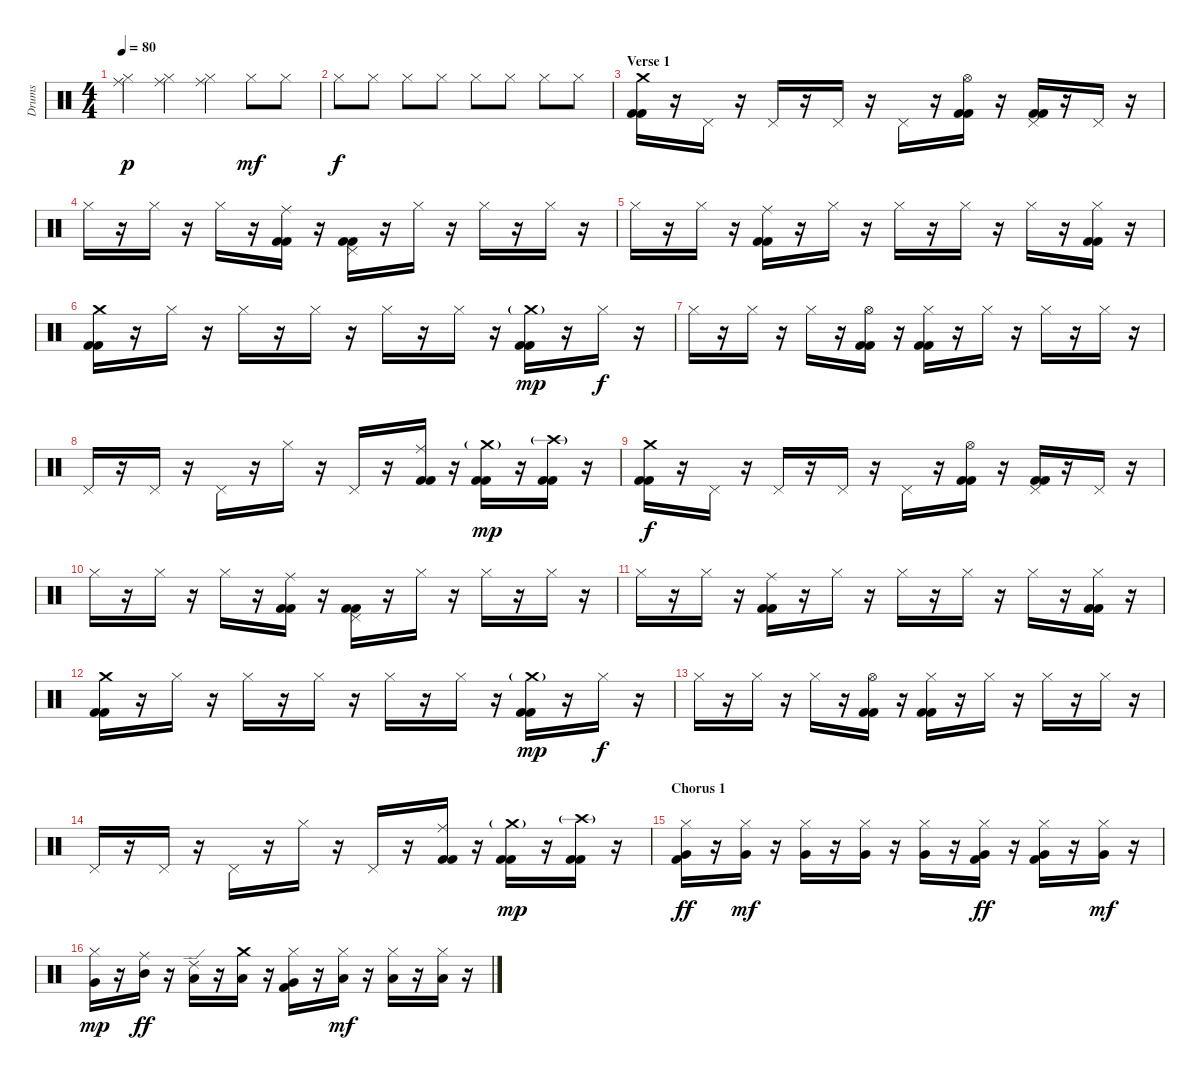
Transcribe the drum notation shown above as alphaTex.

\track ("Drums" "Drums") {instrument percussion}
\staff {score}
\articulation defaults
\ts (4 4)
\tempo 80
\clef neutral
\ks c
("Hi-Hat (closed)" "Ride (middle)").4{dy p} ("Hi-Hat (closed)" "Ride (middle)").4 ("Hi-Hat (closed)" "Ride (middle)").4 "Hi-Hat (closed)".8{dy mf} "Hi-Hat (closed)".8 |
"Hi-Hat (closed)".8{dy f} "Hi-Hat (closed)".8 "Hi-Hat (closed)".8 "Hi-Hat (closed)".8 "Hi-Hat (closed)".8 "Hi-Hat (closed)".8 "Hi-Hat (closed)".8 "Hi-Hat (closed)".8 |
\section ("" "Verse 1")
("Crash medium (hit)" "Kick (hit) 2" "Kick (hit) 2").16 r.16 "Pedal Hi-Hat (hit)".16 r.16 "Pedal Hi-Hat (hit)".16 r.16 "Pedal Hi-Hat (hit)".16 r.16 "Pedal Hi-Hat (hit)".16 r.16 ("Hi-Hat (open)" "Kick (hit) 2" "Kick (hit) 2").16 r.16 ("Pedal Hi-Hat (hit)" "Kick (hit) 2" "Kick (hit) 2").16 r.16 "Pedal Hi-Hat (hit)".16 r.16 |
"Hi-Hat (closed)".16 r.16 "Hi-Hat (closed)".16 r.16 "Hi-Hat (closed)".16 r.16 ("Ride (middle)" "Kick (hit) 2" "Kick (hit) 2").16 r.16 ("Pedal Hi-Hat (hit)" "Kick (hit) 2" "Kick (hit) 2").16 r.16 "Hi-Hat (closed)".16 r.16 "Hi-Hat (closed)".16 r.16 "Hi-Hat (closed)".16 r.16 |
"Hi-Hat (closed)".16 r.16 "Hi-Hat (closed)".16 r.16 ("Ride (middle)" "Kick (hit) 2" "Kick (hit) 2").16 r.16 "Hi-Hat (closed)".16 r.16 "Hi-Hat (closed)".16 r.16 "Hi-Hat (closed)".16 r.16 "Hi-Hat (closed)".16 r.16 ("Hi-Hat (closed)" "Kick (hit) 2" "Kick (hit) 2").16 r.16 |
("Crash medium (hit)" "Kick (hit) 2" "Kick (hit) 2").16 r.16 "Hi-Hat (closed)".16 r.16 "Hi-Hat (closed)".16 r.16 "Hi-Hat (closed)".16 r.16 "Hi-Hat (closed)".16 r.16 "Hi-Hat (closed)".16 r.16 ("Crash medium (hit)"{g} "Kick (hit) 2" "Kick (hit) 2").16{dy mp} r.16 "Hi-Hat (closed)".16{dy f} r.16 |
"Hi-Hat (closed)".16 r.16 "Hi-Hat (closed)".16 r.16 "Hi-Hat (closed)".16 r.16 ("Hi-Hat (open)" "Kick (hit) 2" "Kick (hit) 2").16 r.16 ("Hi-Hat (closed)" "Kick (hit) 2" "Kick (hit) 2").16 r.16 "Hi-Hat (closed)".16 r.16 "Hi-Hat (closed)".16 r.16 "Hi-Hat (closed)".16 r.16 |
"Pedal Hi-Hat (hit)".16 r.16 "Pedal Hi-Hat (hit)".16 r.16 "Pedal Hi-Hat (hit)".16 r.16 "Hi-Hat (closed)".16 r.16 "Pedal Hi-Hat (hit)".16 r.16 ("Ride (middle)" "Kick (hit) 2" "Kick (hit) 2").16 r.16 ("Crash medium (hit)"{g} "Kick (hit) 2" "Kick (hit) 2").16{dy mp} r.16 ("Crash high (hit)"{g} "Kick (hit) 2" "Kick (hit) 2").16 r.16 |
("Crash medium (hit)" "Kick (hit) 2" "Kick (hit) 2").16{dy f} r.16 "Pedal Hi-Hat (hit)".16 r.16 "Pedal Hi-Hat (hit)".16 r.16 "Pedal Hi-Hat (hit)".16 r.16 "Pedal Hi-Hat (hit)".16 r.16 ("Hi-Hat (open)" "Kick (hit) 2" "Kick (hit) 2").16 r.16 ("Pedal Hi-Hat (hit)" "Kick (hit) 2" "Kick (hit) 2").16 r.16 "Pedal Hi-Hat (hit)".16 r.16 |
"Hi-Hat (closed)".16 r.16 "Hi-Hat (closed)".16 r.16 "Hi-Hat (closed)".16 r.16 ("Ride (middle)" "Kick (hit) 2" "Kick (hit) 2").16 r.16 ("Pedal Hi-Hat (hit)" "Kick (hit) 2" "Kick (hit) 2").16 r.16 "Hi-Hat (closed)".16 r.16 "Hi-Hat (closed)".16 r.16 "Hi-Hat (closed)".16 r.16 |
"Hi-Hat (closed)".16 r.16 "Hi-Hat (closed)".16 r.16 ("Ride (middle)" "Kick (hit) 2" "Kick (hit) 2").16 r.16 "Hi-Hat (closed)".16 r.16 "Hi-Hat (closed)".16 r.16 "Hi-Hat (closed)".16 r.16 "Hi-Hat (closed)".16 r.16 ("Hi-Hat (closed)" "Kick (hit) 2" "Kick (hit) 2").16 r.16 |
("Crash medium (hit)" "Kick (hit) 2" "Kick (hit) 2").16 r.16 "Hi-Hat (closed)".16 r.16 "Hi-Hat (closed)".16 r.16 "Hi-Hat (closed)".16 r.16 "Hi-Hat (closed)".16 r.16 "Hi-Hat (closed)".16 r.16 ("Crash medium (hit)"{g} "Kick (hit) 2" "Kick (hit) 2").16{dy mp} r.16 "Hi-Hat (closed)".16{dy f} r.16 |
"Hi-Hat (closed)".16 r.16 "Hi-Hat (closed)".16 r.16 "Hi-Hat (closed)".16 r.16 ("Hi-Hat (open)" "Kick (hit) 2" "Kick (hit) 2").16 r.16 ("Hi-Hat (closed)" "Kick (hit) 2" "Kick (hit) 2").16 r.16 "Hi-Hat (closed)".16 r.16 "Hi-Hat (closed)".16 r.16 "Hi-Hat (closed)".16 r.16 |
"Pedal Hi-Hat (hit)".16 r.16 "Pedal Hi-Hat (hit)".16 r.16 "Pedal Hi-Hat (hit)".16 r.16 "Hi-Hat (closed)".16 r.16 "Pedal Hi-Hat (hit)".16 r.16 ("Ride (middle)" "Kick (hit) 2" "Kick (hit) 2").16 r.16 ("Crash medium (hit)"{g} "Kick (hit) 2" "Kick (hit) 2").16{dy mp} r.16 ("Crash high (hit)"{g} "Kick (hit) 2" "Kick (hit) 2").16 r.16 |
\section ("" "Chorus 1")
("Hi-Hat (closed)" "Very Low Tom (hit)" "Kick (hit) 2").16{dy ff} r.16 ("Hi-Hat (closed)" "Very Low Tom (hit)").16{dy mf} r.16 ("Hi-Hat (closed)" "Very Low Tom (hit)").16 r.16 ("Hi-Hat (closed)" "Very Low Tom (hit)").16 r.16 ("Hi-Hat (closed)" "Very Low Tom (hit)").16 r.16 ("Hi-Hat (closed)" "Very Low Tom (hit)" "Kick (hit) 2").16{dy ff} r.16 ("Hi-Hat (closed)" "Very Low Tom (hit)" "Kick (hit) 2").16 r.16 ("Hi-Hat (closed)" "Very Low Tom (hit)").16{dy mf} r.16 |
("Hi-Hat (closed)" "Very Low Tom (hit)").16{dy mp} r.16 ("Ride (middle)" "Mid Tom (hit)").16{dy ff} r.16 ("Ride (edge) 2" "Low Tom (hit)").16 r.16 ("Crash medium (hit)" "Low Floor Tom (hit)").16 r.16 ("Hi-Hat (closed)" "Very Low Tom (hit)" "Kick (hit) 2").16 r.16 ("Hi-Hat (closed)" "Low Tom (hit)").16{dy mf} r.16 ("Hi-Hat (closed)" "Low Tom (hit)").16 r.16 ("Hi-Hat (closed)" "Low Tom (hit)").16 r.16
